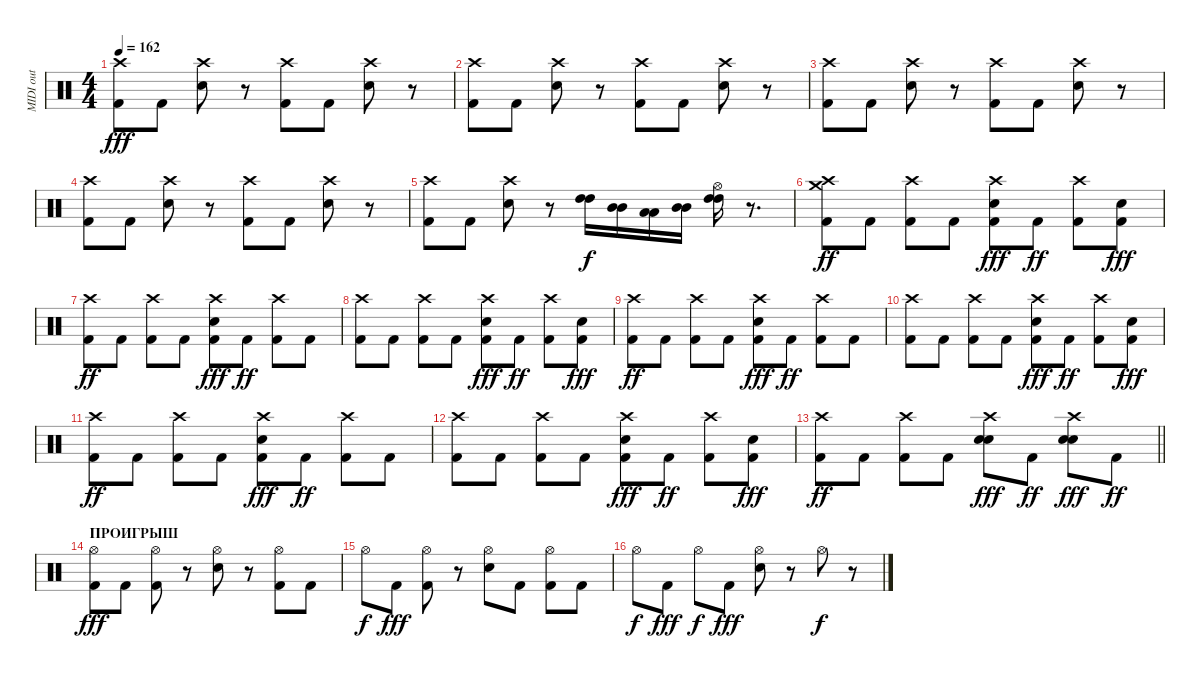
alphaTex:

\track ("MIDI out" "MIDI out") {instrument percussion}
\staff {score}
\articulation defaults
\ts (4 4)
\tempo 162
\clef neutral
\ks c
("Crash high (hit)" "Kick (hit) 2").8{dy fff} "Kick (hit) 2".8 ("Crash high (hit)" "Snare (hit) 2").8 r.8 ("Crash high (hit)" "Kick (hit) 2").8 "Kick (hit) 2".8 ("Crash high (hit)" "Snare (hit) 2").8 r.8 |
("Kick (hit) 2" "Crash high (hit)").8 "Kick (hit) 2".8 ("Crash high (hit)" "Snare (hit) 2").8 r.8 ("Crash high (hit)" "Kick (hit) 2").8 "Kick (hit) 2".8 ("Crash high (hit)" "Snare (hit) 2").8 r.8 |
("Crash high (hit)" "Kick (hit) 2").8 "Kick (hit) 2".8 ("Crash high (hit)" "Snare (hit) 2").8 r.8 ("Crash high (hit)" "Kick (hit) 2").8 "Kick (hit) 2".8 ("Crash high (hit)" "Snare (hit) 2").8 r.8 |
("Crash high (hit)" "Kick (hit) 2").8 "Kick (hit) 2".8 ("Crash high (hit)" "Snare (hit) 2").8 r.8 ("Crash high (hit)" "Kick (hit) 2").8 "Kick (hit) 2".8 ("Crash high (hit)" "Snare (hit) 2").8 r.8 |
("Crash high (hit)" "Kick (hit) 2").8 "Kick (hit) 2".8 ("Crash high (hit)" "Snare (hit) 2").8 r.8 ("High Tom (hit)" "High Tom (hit)").16{dy f} ("Mid Tom (hit)" "Mid Tom (hit)").16 ("Low Tom (hit)" "Low Tom (hit)").16 ("Mid Tom (hit)" "Mid Tom (hit)").16 ("Hi-Hat (open)" "High Tom (hit)" "High Tom (hit)").16 r.8{d} |
("Crash high (hit)" "Kick (hit) 2" "Crash medium (hit)").8{dy ff} "Kick (hit) 2".8 ("Kick (hit) 2" "Crash high (hit)").8 "Kick (hit) 2".8 ("Crash high (hit)" "Kick (hit) 2" "Snare (hit) 2").8{dy fff} "Kick (hit) 2".8{dy ff} ("Kick (hit) 2" "Crash high (hit)").8 ("Kick (hit) 2" "Snare (hit) 2").8{dy fff} |
("Kick (hit) 2" "Crash high (hit)").8{dy ff} "Kick (hit) 2".8 ("Kick (hit) 2" "Crash high (hit)").8 "Kick (hit) 2".8 ("Kick (hit) 2" "Crash high (hit)" "Snare (hit) 2").8{dy fff} "Kick (hit) 2".8{dy ff} ("Kick (hit) 2" "Crash high (hit)").8 "Kick (hit) 2".8 |
("Crash high (hit)" "Kick (hit) 2").8 "Kick (hit) 2".8 ("Kick (hit) 2" "Crash high (hit)").8 "Kick (hit) 2".8 ("Crash high (hit)" "Kick (hit) 2" "Snare (hit) 2").8{dy fff} "Kick (hit) 2".8{dy ff} ("Kick (hit) 2" "Crash high (hit)").8 ("Kick (hit) 2" "Snare (hit) 2").8{dy fff} |
("Kick (hit) 2" "Crash high (hit)").8{dy ff} "Kick (hit) 2".8 ("Kick (hit) 2" "Crash high (hit)").8 "Kick (hit) 2".8 ("Kick (hit) 2" "Crash high (hit)" "Snare (hit) 2").8{dy fff} "Kick (hit) 2".8{dy ff} ("Kick (hit) 2" "Crash high (hit)").8 "Kick (hit) 2".8 |
("Crash high (hit)" "Kick (hit) 2").8 "Kick (hit) 2".8 ("Kick (hit) 2" "Crash high (hit)").8 "Kick (hit) 2".8 ("Crash high (hit)" "Kick (hit) 2" "Snare (hit) 2").8{dy fff} "Kick (hit) 2".8{dy ff} ("Kick (hit) 2" "Crash high (hit)").8 ("Kick (hit) 2" "Snare (hit) 2").8{dy fff} |
("Kick (hit) 2" "Crash high (hit)").8{dy ff} "Kick (hit) 2".8 ("Kick (hit) 2" "Crash high (hit)").8 "Kick (hit) 2".8 ("Kick (hit) 2" "Crash high (hit)" "Snare (hit) 2").8{dy fff} "Kick (hit) 2".8{dy ff} ("Kick (hit) 2" "Crash high (hit)").8 "Kick (hit) 2".8 |
("Crash high (hit)" "Kick (hit) 2").8 "Kick (hit) 2".8 ("Kick (hit) 2" "Crash high (hit)").8 "Kick (hit) 2".8 ("Crash high (hit)" "Kick (hit) 2" "Snare (hit) 2").8{dy fff} "Kick (hit) 2".8{dy ff} ("Kick (hit) 2" "Crash high (hit)").8 ("Kick (hit) 2" "Snare (hit) 2").8{dy fff} |
\barLineRight lightlight
("Kick (hit) 2" "Crash high (hit)").8{dy ff} "Kick (hit) 2".8 ("Kick (hit) 2" "Crash high (hit)").8 "Kick (hit) 2".8 ("Electric Snare (hit)" "Crash high (hit)" "Snare (hit) 2").8{dy fff} "Kick (hit) 2".8{dy ff} ("Electric Snare (hit)" "Snare (hit) 2" "Crash high (hit)").8{dy fff} "Kick (hit) 2".8{dy ff} |
\section ("" "ПРОИГРЫШ")
("Kick (hit) 2" "Hi-Hat (open)").8{dy fff} "Kick (hit) 2".8 ("Hi-Hat (open)" "Kick (hit) 2").8 r.8 ("Hi-Hat (open)" "Electric Snare (hit)").8 r.8 ("Kick (hit) 2" "Hi-Hat (open)").8 "Kick (hit) 2".8 |
"Hi-Hat (open)".8{dy f} "Kick (hit) 2".8{dy fff} ("Hi-Hat (open)" "Kick (hit) 2").8 r.8 ("Hi-Hat (open)" "Electric Snare (hit)").8 "Kick (hit) 2".8 ("Kick (hit) 2" "Hi-Hat (open)").8 "Kick (hit) 2".8 |
"Hi-Hat (open)".8{dy f} "Kick (hit) 2".8{dy fff} "Hi-Hat (open)".8{dy f} "Kick (hit) 2".8{dy fff} ("Electric Snare (hit)" "Hi-Hat (open)").8 r.8 "Hi-Hat (open)".8{dy f} r.8
